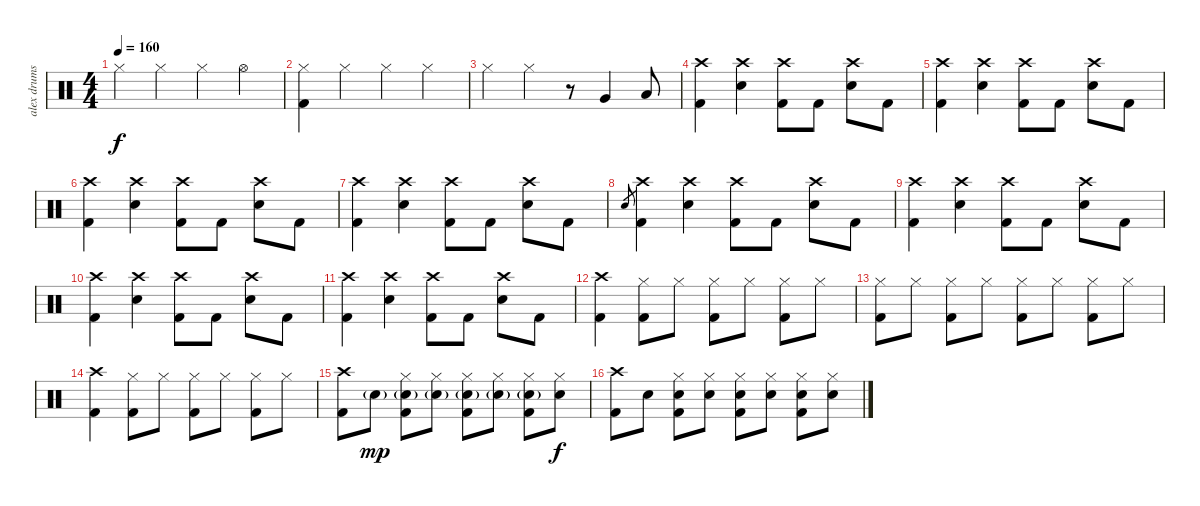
\track ("alex drums" "alex drums") {instrument percussion}
\staff {score}
\articulation defaults
\ts (4 4)
\tempo 160
\clef neutral
\ks c "Hi-Hat (closed)".4{dy f} "Hi-Hat (closed)".4 "Hi-Hat (closed)".4 "Hi-Hat (open)".4
|
("Hi-Hat (closed)" "Kick (hit) 2").4 "Hi-Hat (closed)".4 "Hi-Hat (closed)".4 "Hi-Hat (closed)".4 |
"Hi-Hat (closed)".4 "Hi-Hat (closed)".4 r.8 "Very Low Tom (hit)".4 "Low Floor Tom (hit)".8 |
("Crash high (hit)" "Kick (hit) 2").4 ("Crash high (hit)" "Snare (hit) 2").4 ("Crash high (hit)" "Kick (hit) 2").8 "Kick (hit) 2".8 ("Crash high (hit)" "Snare (hit) 2").8 "Kick (hit) 2".8 |
("Crash high (hit)" "Kick (hit) 2").4 ("Crash high (hit)" "Snare (hit) 2").4 ("Crash high (hit)" "Kick (hit) 2").8 "Kick (hit) 2".8 ("Crash high (hit)" "Snare (hit) 2").8 "Kick (hit) 2".8 |
("Crash high (hit)" "Kick (hit) 2").4 ("Crash high (hit)" "Snare (hit) 2").4 ("Crash high (hit)" "Kick (hit) 2").8 "Kick (hit) 2".8 ("Crash high (hit)" "Snare (hit) 2").8 "Kick (hit) 2".8 |
("Crash high (hit)" "Kick (hit) 2").4 ("Crash high (hit)" "Snare (hit) 2").4 ("Crash high (hit)" "Kick (hit) 2").8 "Kick (hit) 2".8 ("Crash high (hit)" "Snare (hit) 2").8 "Kick (hit) 2".8 |
"Snare (hit)".8{gr} ("Crash high (hit)" "Kick (hit) 2").4 ("Crash high (hit)" "Snare (hit) 2").4 ("Crash high (hit)" "Kick (hit) 2").8 "Kick (hit) 2".8 ("Crash high (hit)" "Snare (hit) 2").8 "Kick (hit) 2".8 |
("Crash high (hit)" "Kick (hit) 2").4 ("Crash high (hit)" "Snare (hit) 2").4 ("Crash high (hit)" "Kick (hit) 2").8 "Kick (hit) 2".8 ("Crash high (hit)" "Snare (hit) 2").8 "Kick (hit) 2".8 |
("Crash high (hit)" "Kick (hit) 2").4 ("Crash high (hit)" "Snare (hit) 2").4 ("Crash high (hit)" "Kick (hit) 2").8 "Kick (hit) 2".8 ("Crash high (hit)" "Snare (hit) 2").8 "Kick (hit) 2".8 |
("Crash high (hit)" "Kick (hit) 2").4 ("Crash high (hit)" "Snare (hit) 2").4 ("Crash high (hit)" "Kick (hit) 2").8 "Kick (hit) 2".8 ("Crash high (hit)" "Snare (hit) 2").8 "Kick (hit) 2".8 |
("Crash high (hit)" "Kick (hit) 2").4 ("Hi-Hat (closed)" "Kick (hit) 2").8 "Hi-Hat (closed)".8 ("Hi-Hat (closed)" "Kick (hit) 2").8 "Hi-Hat (closed)".8 ("Hi-Hat (closed)" "Kick (hit) 2").8 "Hi-Hat (closed)".8 |
("Hi-Hat (closed)" "Kick (hit) 2").8 "Hi-Hat (closed)".8 ("Hi-Hat (closed)" "Kick (hit) 2").8 "Hi-Hat (closed)".8 ("Hi-Hat (closed)" "Kick (hit) 2").8 "Hi-Hat (closed)".8 ("Hi-Hat (closed)" "Kick (hit) 2").8 "Hi-Hat (closed)".8 |
("Crash high (hit)" "Kick (hit) 2").4 ("Hi-Hat (closed)" "Kick (hit) 2").8 "Hi-Hat (closed)".8 ("Hi-Hat (closed)" "Kick (hit) 2").8 "Hi-Hat (closed)".8 ("Hi-Hat (closed)" "Kick (hit) 2").8 "Hi-Hat (closed)".8 |
("Crash high (hit)" "Kick (hit) 2").8 "Snare (hit) 2"{g}.8{dy mp} ("Hi-Hat (closed)" "Snare (hit) 2"{g} "Kick (hit) 2").8 ("Hi-Hat (closed)" "Snare (hit) 2"{g}).8 ("Hi-Hat (closed)" "Snare (hit) 2"{g} "Kick (hit) 2").8 ("Hi-Hat (closed)" "Snare (hit) 2"{g}).8 ("Hi-Hat (closed)" "Snare (hit) 2"{g} "Kick (hit) 2").8 ("Hi-Hat (closed)" "Snare (hit) 2").8{dy f} |
("Crash high (hit)" "Kick (hit) 2").8 "Snare (hit) 2".8 ("Hi-Hat (closed)" "Snare (hit) 2" "Kick (hit) 2").8 ("Hi-Hat (closed)" "Snare (hit) 2").8 ("Hi-Hat (closed)" "Snare (hit) 2" "Kick (hit) 2").8 ("Hi-Hat (closed)" "Snare (hit) 2").8 ("Hi-Hat (closed)" "Snare (hit) 2" "Kick (hit) 2").8 ("Hi-Hat (closed)" "Snare (hit) 2").8
